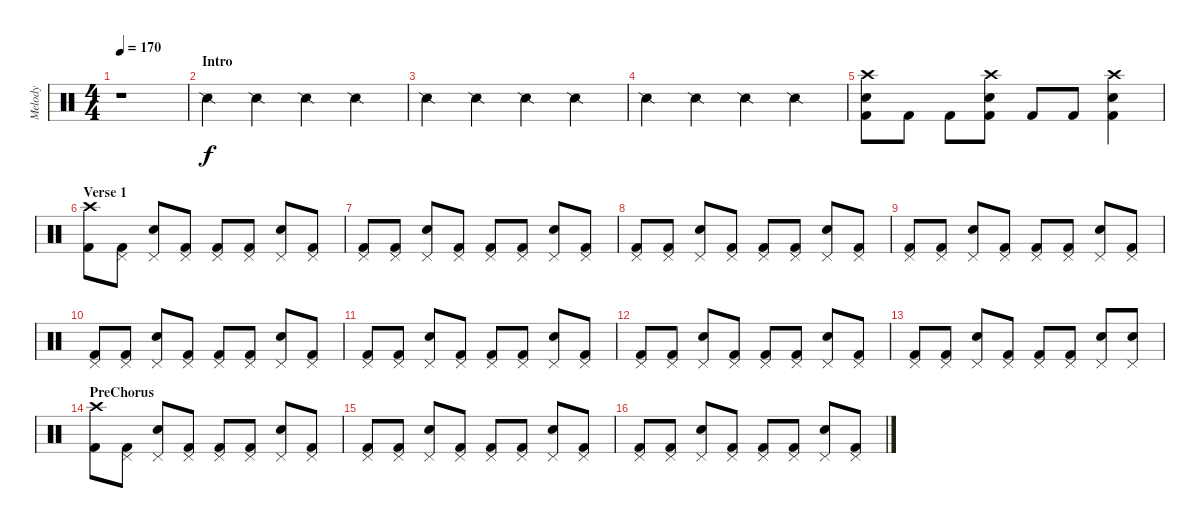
\track ("Melody" "Melody") {instrument percussion}
\staff {score}
\articulation defaults
\ts (4 4)
\tempo 170
\clef neutral
\ks c
r.1{dy f} |
\section ("" "Intro")
"Snare (side stick) 2".4 "Snare (side stick) 2".4 "Snare (side stick) 2".4 "Snare (side stick) 2".4 |
"Snare (side stick) 2".4 "Snare (side stick) 2".4 "Snare (side stick) 2".4 "Snare (side stick) 2".4 |
"Snare (side stick) 2".4 "Snare (side stick) 2".4 "Snare (side stick) 2".4 "Snare (side stick) 2".4 |
("Crash high (hit)" "Snare (hit) 2" "Kick (hit) 2").8 "Kick (hit) 2".8 "Kick (hit) 2".8 ("Crash high (hit)" "Snare (hit) 2" "Kick (hit) 2").8 "Kick (hit) 2".8 "Kick (hit) 2".8 ("Crash high (hit)" "Snare (hit) 2" "Kick (hit) 2").4 |
\section ("" "Verse 1")
("Crash high (hit)" "Kick (hit) 2").8 ("Pedal Hi-Hat (hit)" "Kick (hit) 2").8 ("Pedal Hi-Hat (hit)" "Snare (hit) 2").8 ("Pedal Hi-Hat (hit)" "Kick (hit) 2").8 ("Pedal Hi-Hat (hit)" "Kick (hit) 2").8 ("Pedal Hi-Hat (hit)" "Kick (hit) 2").8 ("Pedal Hi-Hat (hit)" "Snare (hit) 2").8 ("Pedal Hi-Hat (hit)" "Kick (hit) 2").8 |
("Pedal Hi-Hat (hit)" "Kick (hit) 2").8 ("Pedal Hi-Hat (hit)" "Kick (hit) 2").8 ("Pedal Hi-Hat (hit)" "Snare (hit) 2").8 ("Pedal Hi-Hat (hit)" "Kick (hit) 2").8 ("Pedal Hi-Hat (hit)" "Kick (hit) 2").8 ("Pedal Hi-Hat (hit)" "Kick (hit) 2").8 ("Pedal Hi-Hat (hit)" "Snare (hit) 2").8 ("Pedal Hi-Hat (hit)" "Kick (hit) 2").8 |
("Pedal Hi-Hat (hit)" "Kick (hit) 2").8 ("Pedal Hi-Hat (hit)" "Kick (hit) 2").8 ("Pedal Hi-Hat (hit)" "Snare (hit) 2").8 ("Pedal Hi-Hat (hit)" "Kick (hit) 2").8 ("Pedal Hi-Hat (hit)" "Kick (hit) 2").8 ("Pedal Hi-Hat (hit)" "Kick (hit) 2").8 ("Pedal Hi-Hat (hit)" "Snare (hit) 2").8 ("Pedal Hi-Hat (hit)" "Kick (hit) 2").8 |
("Pedal Hi-Hat (hit)" "Kick (hit) 2").8 ("Pedal Hi-Hat (hit)" "Kick (hit) 2").8 ("Pedal Hi-Hat (hit)" "Snare (hit) 2").8 ("Pedal Hi-Hat (hit)" "Kick (hit) 2").8 ("Pedal Hi-Hat (hit)" "Kick (hit) 2").8 ("Pedal Hi-Hat (hit)" "Kick (hit) 2").8 ("Pedal Hi-Hat (hit)" "Snare (hit) 2").8 ("Pedal Hi-Hat (hit)" "Kick (hit) 2").8 |
("Pedal Hi-Hat (hit)" "Kick (hit) 2").8 ("Pedal Hi-Hat (hit)" "Kick (hit) 2").8 ("Pedal Hi-Hat (hit)" "Snare (hit) 2").8 ("Pedal Hi-Hat (hit)" "Kick (hit) 2").8 ("Pedal Hi-Hat (hit)" "Kick (hit) 2").8 ("Pedal Hi-Hat (hit)" "Kick (hit) 2").8 ("Pedal Hi-Hat (hit)" "Snare (hit) 2").8 ("Pedal Hi-Hat (hit)" "Kick (hit) 2").8 |
("Pedal Hi-Hat (hit)" "Kick (hit) 2").8 ("Pedal Hi-Hat (hit)" "Kick (hit) 2").8 ("Pedal Hi-Hat (hit)" "Snare (hit) 2").8 ("Pedal Hi-Hat (hit)" "Kick (hit) 2").8 ("Pedal Hi-Hat (hit)" "Kick (hit) 2").8 ("Pedal Hi-Hat (hit)" "Kick (hit) 2").8 ("Pedal Hi-Hat (hit)" "Snare (hit) 2").8 ("Pedal Hi-Hat (hit)" "Kick (hit) 2").8 |
("Pedal Hi-Hat (hit)" "Kick (hit) 2").8 ("Pedal Hi-Hat (hit)" "Kick (hit) 2").8 ("Pedal Hi-Hat (hit)" "Snare (hit) 2").8 ("Pedal Hi-Hat (hit)" "Kick (hit) 2").8 ("Pedal Hi-Hat (hit)" "Kick (hit) 2").8 ("Pedal Hi-Hat (hit)" "Kick (hit) 2").8 ("Pedal Hi-Hat (hit)" "Snare (hit) 2").8 ("Pedal Hi-Hat (hit)" "Kick (hit) 2").8 |
("Pedal Hi-Hat (hit)" "Kick (hit) 2").8 ("Pedal Hi-Hat (hit)" "Kick (hit) 2").8 ("Pedal Hi-Hat (hit)" "Snare (hit) 2").8 ("Pedal Hi-Hat (hit)" "Kick (hit) 2").8 ("Pedal Hi-Hat (hit)" "Kick (hit) 2").8 ("Pedal Hi-Hat (hit)" "Kick (hit) 2").8 ("Pedal Hi-Hat (hit)" "Snare (hit) 2").8 ("Pedal Hi-Hat (hit)" "Snare (hit) 2").8 |
\section ("" "PreChorus")
("Crash high (hit)" "Kick (hit) 2").8 ("Pedal Hi-Hat (hit)" "Kick (hit) 2").8 ("Pedal Hi-Hat (hit)" "Snare (hit) 2").8 ("Pedal Hi-Hat (hit)" "Kick (hit) 2").8 ("Pedal Hi-Hat (hit)" "Kick (hit) 2").8 ("Pedal Hi-Hat (hit)" "Kick (hit) 2").8 ("Pedal Hi-Hat (hit)" "Snare (hit) 2").8 ("Pedal Hi-Hat (hit)" "Kick (hit) 2").8 |
("Pedal Hi-Hat (hit)" "Kick (hit) 2").8 ("Pedal Hi-Hat (hit)" "Kick (hit) 2").8 ("Pedal Hi-Hat (hit)" "Snare (hit) 2").8 ("Pedal Hi-Hat (hit)" "Kick (hit) 2").8 ("Pedal Hi-Hat (hit)" "Kick (hit) 2").8 ("Pedal Hi-Hat (hit)" "Kick (hit) 2").8 ("Pedal Hi-Hat (hit)" "Snare (hit) 2").8 ("Pedal Hi-Hat (hit)" "Kick (hit) 2").8 |
("Pedal Hi-Hat (hit)" "Kick (hit) 2").8 ("Pedal Hi-Hat (hit)" "Kick (hit) 2").8 ("Pedal Hi-Hat (hit)" "Snare (hit) 2").8 ("Pedal Hi-Hat (hit)" "Kick (hit) 2").8 ("Pedal Hi-Hat (hit)" "Kick (hit) 2").8 ("Pedal Hi-Hat (hit)" "Kick (hit) 2").8 ("Pedal Hi-Hat (hit)" "Snare (hit) 2").8 ("Pedal Hi-Hat (hit)" "Kick (hit) 2").8
